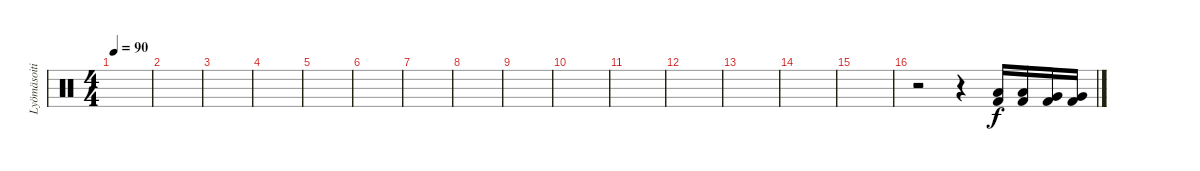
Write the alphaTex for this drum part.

\track ("Lyömäsoitin" "Lyömäsoiti") {instrument percussion}
\staff {score}
\articulation defaults
\ts (4 4)
\tempo 90
\clef neutral
\ks c
|
|
|
|
|
|
|
|
|
|
|
|
|
|
|
r.2 r.4 ("Low Tom (hit)" "Kick (hit) 2").16 ("Low Tom (hit)" "Kick (hit) 2").16 ("Very Low Tom (hit)" "Kick (hit) 2").16 ("Very Low Tom (hit)" "Kick (hit) 2").16
